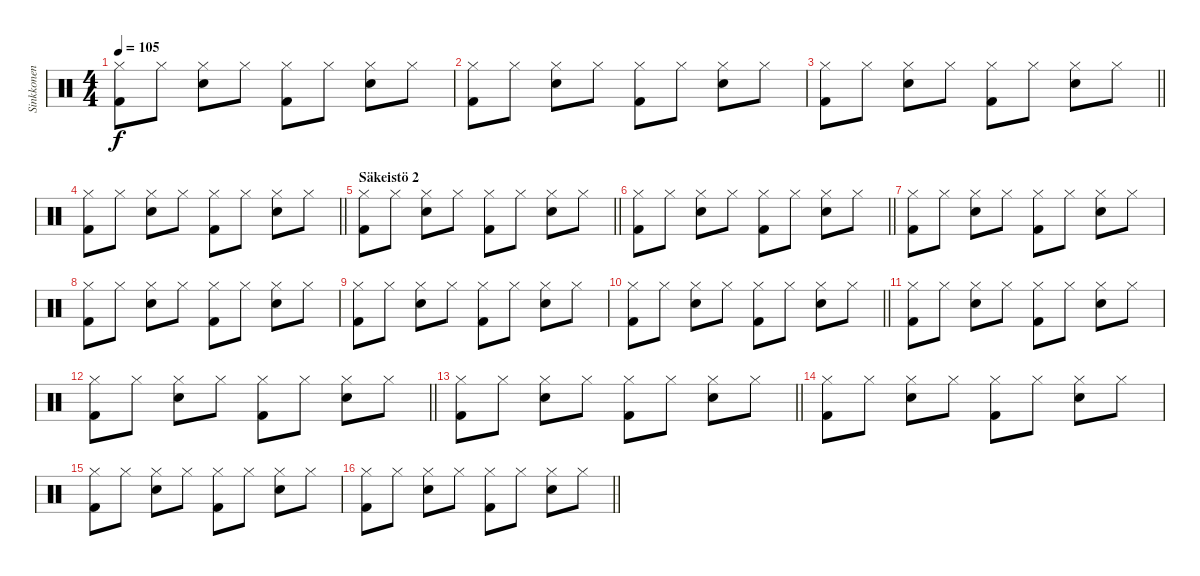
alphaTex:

\track ("Sinkkonen" "Sinkkonen") {instrument percussion}
\staff {score}
\articulation defaults
\ts (4 4)
\tempo 105
\clef neutral
\ks c
("Kick (hit) 2" "Hi-Hat (closed)").8{dy f} "Hi-Hat (closed)".8 ("Electric Snare (hit)" "Hi-Hat (closed)").8 "Hi-Hat (closed)".8 ("Kick (hit) 2" "Hi-Hat (closed)").8 "Hi-Hat (closed)".8 ("Electric Snare (hit)" "Hi-Hat (closed)").8 "Hi-Hat (closed)".8 |
("Kick (hit) 2" "Hi-Hat (closed)").8 "Hi-Hat (closed)".8 ("Electric Snare (hit)" "Hi-Hat (closed)").8 "Hi-Hat (closed)".8 ("Kick (hit) 2" "Hi-Hat (closed)").8 "Hi-Hat (closed)".8 ("Electric Snare (hit)" "Hi-Hat (closed)").8 "Hi-Hat (closed)".8 |
\barLineRight lightlight
("Kick (hit) 2" "Hi-Hat (closed)").8 "Hi-Hat (closed)".8 ("Electric Snare (hit)" "Hi-Hat (closed)").8 "Hi-Hat (closed)".8 ("Kick (hit) 2" "Hi-Hat (closed)").8 "Hi-Hat (closed)".8 ("Electric Snare (hit)" "Hi-Hat (closed)").8 "Hi-Hat (closed)".8 |
\barLineRight lightlight
("Kick (hit) 2" "Hi-Hat (closed)").8 "Hi-Hat (closed)".8 ("Electric Snare (hit)" "Hi-Hat (closed)").8 "Hi-Hat (closed)".8 ("Kick (hit) 2" "Hi-Hat (closed)").8 "Hi-Hat (closed)".8 ("Electric Snare (hit)" "Hi-Hat (closed)").8 "Hi-Hat (closed)".8 |
\section ("" "Säkeistö 2")
\barLineRight lightlight
("Kick (hit) 2" "Hi-Hat (closed)").8 "Hi-Hat (closed)".8 ("Electric Snare (hit)" "Hi-Hat (closed)").8 "Hi-Hat (closed)".8 ("Kick (hit) 2" "Hi-Hat (closed)").8 "Hi-Hat (closed)".8 ("Electric Snare (hit)" "Hi-Hat (closed)").8 "Hi-Hat (closed)".8 |
\section ("" "")
\barLineRight lightlight
("Kick (hit) 2" "Hi-Hat (closed)").8 "Hi-Hat (closed)".8 ("Electric Snare (hit)" "Hi-Hat (closed)").8 "Hi-Hat (closed)".8 ("Kick (hit) 2" "Hi-Hat (closed)").8 "Hi-Hat (closed)".8 ("Electric Snare (hit)" "Hi-Hat (closed)").8 "Hi-Hat (closed)".8 |
("Kick (hit) 2" "Hi-Hat (closed)").8 "Hi-Hat (closed)".8 ("Electric Snare (hit)" "Hi-Hat (closed)").8 "Hi-Hat (closed)".8 ("Kick (hit) 2" "Hi-Hat (closed)").8 "Hi-Hat (closed)".8 ("Electric Snare (hit)" "Hi-Hat (closed)").8 "Hi-Hat (closed)".8 |
("Kick (hit) 2" "Hi-Hat (closed)").8 "Hi-Hat (closed)".8 ("Electric Snare (hit)" "Hi-Hat (closed)").8 "Hi-Hat (closed)".8 ("Kick (hit) 2" "Hi-Hat (closed)").8 "Hi-Hat (closed)".8 ("Electric Snare (hit)" "Hi-Hat (closed)").8 "Hi-Hat (closed)".8 |
("Kick (hit) 2" "Hi-Hat (closed)").8 "Hi-Hat (closed)".8 ("Electric Snare (hit)" "Hi-Hat (closed)").8 "Hi-Hat (closed)".8 ("Kick (hit) 2" "Hi-Hat (closed)").8 "Hi-Hat (closed)".8 ("Electric Snare (hit)" "Hi-Hat (closed)").8 "Hi-Hat (closed)".8 |
\barLineRight lightlight
("Kick (hit) 2" "Hi-Hat (closed)").8 "Hi-Hat (closed)".8 ("Electric Snare (hit)" "Hi-Hat (closed)").8 "Hi-Hat (closed)".8 ("Kick (hit) 2" "Hi-Hat (closed)").8 "Hi-Hat (closed)".8 ("Electric Snare (hit)" "Hi-Hat (closed)").8 "Hi-Hat (closed)".8 |
("Kick (hit) 2" "Hi-Hat (closed)").8 "Hi-Hat (closed)".8 ("Electric Snare (hit)" "Hi-Hat (closed)").8 "Hi-Hat (closed)".8 ("Kick (hit) 2" "Hi-Hat (closed)").8 "Hi-Hat (closed)".8 ("Electric Snare (hit)" "Hi-Hat (closed)").8 "Hi-Hat (closed)".8 |
\barLineRight lightlight
("Kick (hit) 2" "Hi-Hat (closed)").8 "Hi-Hat (closed)".8 ("Electric Snare (hit)" "Hi-Hat (closed)").8 "Hi-Hat (closed)".8 ("Kick (hit) 2" "Hi-Hat (closed)").8 "Hi-Hat (closed)".8 ("Electric Snare (hit)" "Hi-Hat (closed)").8 "Hi-Hat (closed)".8 |
\section ("" "")
\barLineRight lightlight
("Kick (hit) 2" "Hi-Hat (closed)").8 "Hi-Hat (closed)".8 ("Electric Snare (hit)" "Hi-Hat (closed)").8 "Hi-Hat (closed)".8 ("Kick (hit) 2" "Hi-Hat (closed)").8 "Hi-Hat (closed)".8 ("Electric Snare (hit)" "Hi-Hat (closed)").8 "Hi-Hat (closed)".8 |
\section ("" "")
("Kick (hit) 2" "Hi-Hat (closed)").8 "Hi-Hat (closed)".8 ("Electric Snare (hit)" "Hi-Hat (closed)").8 "Hi-Hat (closed)".8 ("Kick (hit) 2" "Hi-Hat (closed)").8 "Hi-Hat (closed)".8 ("Electric Snare (hit)" "Hi-Hat (closed)").8 "Hi-Hat (closed)".8 |
("Kick (hit) 2" "Hi-Hat (closed)").8 "Hi-Hat (closed)".8 ("Electric Snare (hit)" "Hi-Hat (closed)").8 "Hi-Hat (closed)".8 ("Kick (hit) 2" "Hi-Hat (closed)").8 "Hi-Hat (closed)".8 ("Electric Snare (hit)" "Hi-Hat (closed)").8 "Hi-Hat (closed)".8 |
\barLineRight lightlight
("Kick (hit) 2" "Hi-Hat (closed)").8 "Hi-Hat (closed)".8 ("Electric Snare (hit)" "Hi-Hat (closed)").8 "Hi-Hat (closed)".8 ("Kick (hit) 2" "Hi-Hat (closed)").8 "Hi-Hat (closed)".8 ("Electric Snare (hit)" "Hi-Hat (closed)").8 "Hi-Hat (closed)".8
